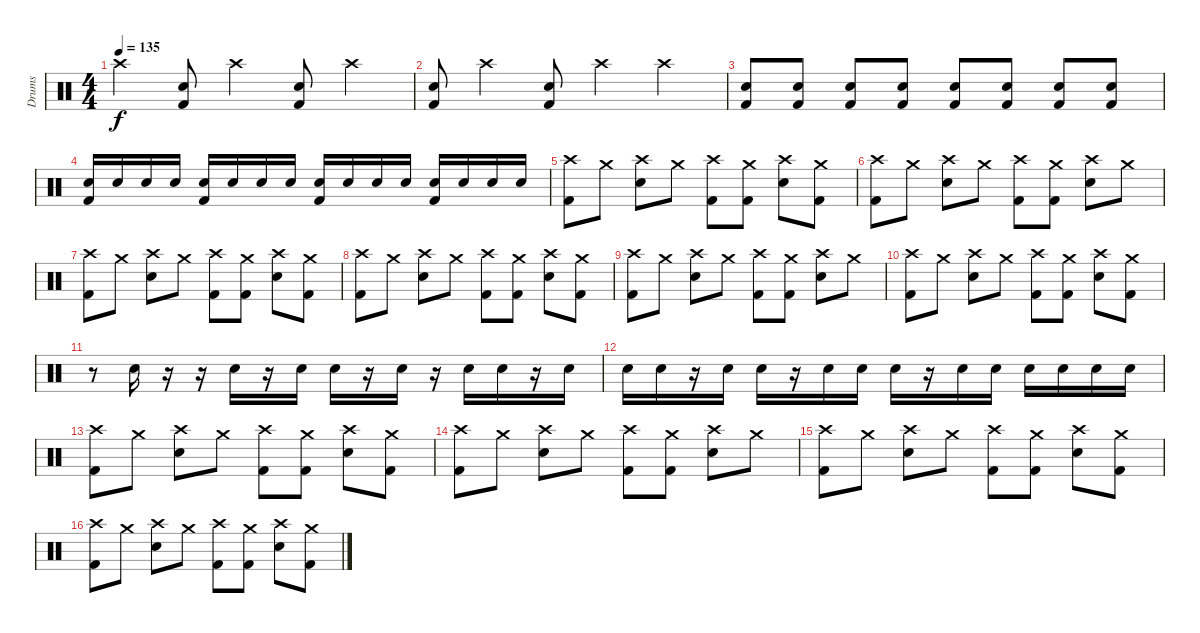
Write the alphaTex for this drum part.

\track ("Drums" "Drums") {instrument percussion}
\staff {score}
\articulation defaults
\ts (4 4)
\tempo 135
\clef neutral
\ks c "Crash high (hit)".4{dy f}
("Snare (hit) 2" "Kick (hit) 2").8 "Crash high (hit)".4 ("Snare (hit) 2" "Kick (hit) 2").8 "Crash high (hit)".4 |
("Snare (hit) 2" "Kick (hit) 2").8 "Crash high (hit)".4 ("Snare (hit) 2" "Kick (hit) 2").8 "Crash high (hit)".4 "Crash high (hit)".4 |
("Snare (hit) 2" "Kick (hit) 2").8 ("Snare (hit) 2" "Kick (hit) 2").8 ("Snare (hit) 2" "Kick (hit) 2").8 ("Snare (hit) 2" "Kick (hit) 2").8 ("Snare (hit) 2" "Kick (hit) 2").8 ("Snare (hit) 2" "Kick (hit) 2").8 ("Snare (hit) 2" "Kick (hit) 2").8 ("Snare (hit) 2" "Kick (hit) 2").8 |
("Snare (hit) 2" "Kick (hit) 2").16 "Snare (hit) 2".16 "Snare (hit) 2".16 "Snare (hit) 2".16 ("Snare (hit) 2" "Kick (hit) 2").16 "Snare (hit) 2".16 "Snare (hit) 2".16 "Snare (hit) 2".16 ("Snare (hit) 2" "Kick (hit) 2").16 "Snare (hit) 2".16 "Snare (hit) 2".16 "Snare (hit) 2".16 ("Snare (hit) 2" "Kick (hit) 2").16 "Snare (hit) 2".16 "Snare (hit) 2".16 "Snare (hit) 2".16 |
("Crash high (hit)" "Kick (hit) 2").8 "Crash medium (hit)".8 ("Crash high (hit)" "Snare (hit) 2").8 "Crash medium (hit)".8 ("Crash high (hit)" "Kick (hit) 2").8 ("Crash medium (hit)" "Kick (hit) 2").8 ("Crash high (hit)" "Snare (hit) 2").8 ("Crash medium (hit)" "Kick (hit) 2").8 |
("Crash high (hit)" "Kick (hit) 2").8 "Crash medium (hit)".8 ("Crash high (hit)" "Snare (hit) 2").8 "Crash medium (hit)".8 ("Crash high (hit)" "Kick (hit) 2").8 ("Crash medium (hit)" "Kick (hit) 2").8 ("Crash high (hit)" "Snare (hit) 2").8 "Crash medium (hit)".8 |
("Crash high (hit)" "Kick (hit) 2").8 "Crash medium (hit)".8 ("Crash high (hit)" "Snare (hit) 2").8 "Crash medium (hit)".8 ("Crash high (hit)" "Kick (hit) 2").8 ("Crash medium (hit)" "Kick (hit) 2").8 ("Crash high (hit)" "Snare (hit) 2").8 ("Crash medium (hit)" "Kick (hit) 2").8 |
("Crash high (hit)" "Kick (hit) 2").8 "Crash medium (hit)".8 ("Crash high (hit)" "Snare (hit) 2").8 "Crash medium (hit)".8 ("Crash high (hit)" "Kick (hit) 2").8 ("Crash medium (hit)" "Kick (hit) 2").8 ("Crash high (hit)" "Snare (hit) 2").8 ("Crash medium (hit)" "Kick (hit) 2").8 |
("Crash high (hit)" "Kick (hit) 2").8 "Crash medium (hit)".8 ("Crash high (hit)" "Snare (hit) 2").8 "Crash medium (hit)".8 ("Crash high (hit)" "Kick (hit) 2").8 ("Crash medium (hit)" "Kick (hit) 2").8 ("Crash high (hit)" "Snare (hit) 2").8 "Crash medium (hit)".8 |
("Crash high (hit)" "Kick (hit) 2").8 "Crash medium (hit)".8 ("Crash high (hit)" "Snare (hit) 2").8 "Crash medium (hit)".8 ("Crash high (hit)" "Kick (hit) 2").8 ("Crash medium (hit)" "Kick (hit) 2").8 ("Crash high (hit)" "Snare (hit) 2").8 ("Crash medium (hit)" "Kick (hit) 2").8 |
r.8 "Snare (hit) 2".16 r.16 r.16 "Snare (hit) 2".16 r.16 "Snare (hit) 2".16 "Snare (hit) 2".16 r.16 "Snare (hit) 2".16 r.16 "Snare (hit) 2".16 "Snare (hit) 2".16 r.16 "Snare (hit) 2".16 |
"Snare (hit) 2".16 "Snare (hit) 2".16 r.16 "Snare (hit) 2".16 "Snare (hit) 2".16 r.16 "Snare (hit) 2".16 "Snare (hit) 2".16 "Snare (hit) 2".16 r.16 "Snare (hit) 2".16 "Snare (hit) 2".16 "Snare (hit) 2".16 "Snare (hit) 2".16 "Snare (hit) 2".16 "Snare (hit) 2".16 |
("Crash high (hit)" "Kick (hit) 2").8 "Crash medium (hit)".8 ("Crash high (hit)" "Snare (hit) 2").8 "Crash medium (hit)".8 ("Crash high (hit)" "Kick (hit) 2").8 ("Crash medium (hit)" "Kick (hit) 2").8 ("Crash high (hit)" "Snare (hit) 2").8 ("Crash medium (hit)" "Kick (hit) 2").8 |
("Crash high (hit)" "Kick (hit) 2").8 "Crash medium (hit)".8 ("Crash high (hit)" "Snare (hit) 2").8 "Crash medium (hit)".8 ("Crash high (hit)" "Kick (hit) 2").8 ("Crash medium (hit)" "Kick (hit) 2").8 ("Crash high (hit)" "Snare (hit) 2").8 "Crash medium (hit)".8 |
("Crash high (hit)" "Kick (hit) 2").8 "Crash medium (hit)".8 ("Crash high (hit)" "Snare (hit) 2").8 "Crash medium (hit)".8 ("Crash high (hit)" "Kick (hit) 2").8 ("Crash medium (hit)" "Kick (hit) 2").8 ("Crash high (hit)" "Snare (hit) 2").8 ("Crash medium (hit)" "Kick (hit) 2").8 |
("Crash high (hit)" "Kick (hit) 2").8 "Crash medium (hit)".8 ("Crash high (hit)" "Snare (hit) 2").8 "Crash medium (hit)".8 ("Crash high (hit)" "Kick (hit) 2").8 ("Crash medium (hit)" "Kick (hit) 2").8 ("Crash high (hit)" "Snare (hit) 2").8 ("Crash medium (hit)" "Kick (hit) 2").8
